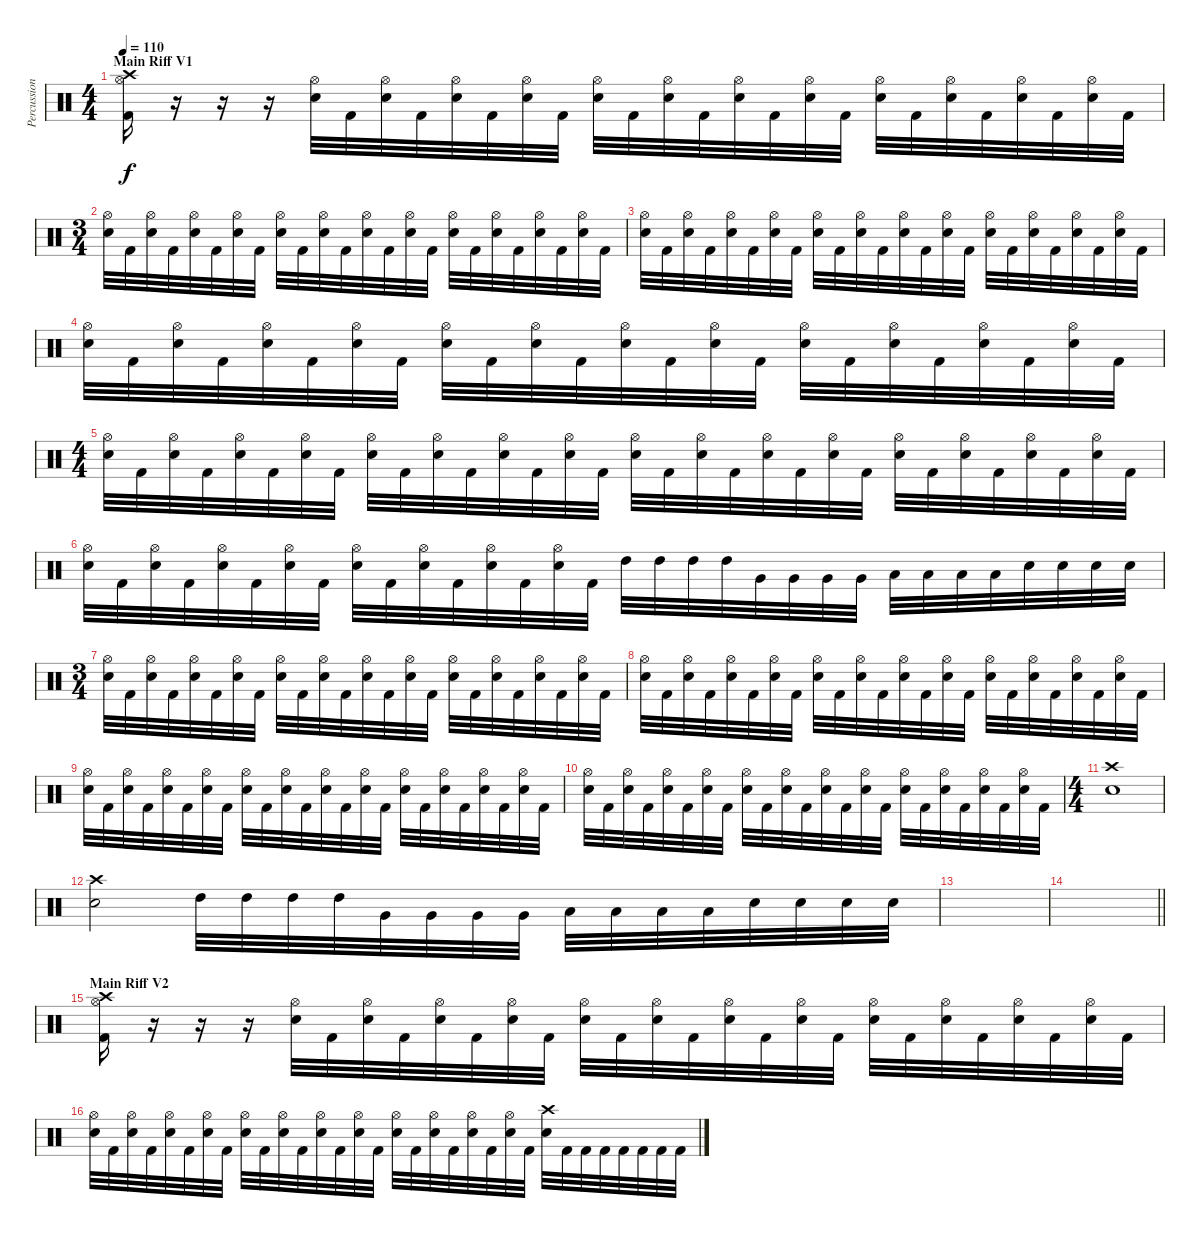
\track ("Percussion" "Percussion") {instrument percussion}
\staff {score}
\articulation defaults
\ts (4 4)
\section ("" "Main Riff V1")
\tempo 110
\clef neutral
\ks c
("Crash high (hit)" "Hi-Hat (open)" "Kick (hit) 2").16{dy f} r.16 r.16 r.16 ("Hi-Hat (open)" "Electric Snare (hit)").32 "Kick (hit) 2".32 ("Hi-Hat (open)" "Electric Snare (hit)").32 "Kick (hit) 2".32 ("Hi-Hat (open)" "Electric Snare (hit)").32 "Kick (hit) 2".32 ("Hi-Hat (open)" "Electric Snare (hit)").32 "Kick (hit) 2".32 ("Hi-Hat (open)" "Electric Snare (hit)").32 "Kick (hit) 2".32 ("Hi-Hat (open)" "Electric Snare (hit)").32 "Kick (hit) 2".32 ("Hi-Hat (open)" "Electric Snare (hit)").32 "Kick (hit) 2".32 ("Hi-Hat (open)" "Electric Snare (hit)").32 "Kick (hit) 2".32 ("Hi-Hat (open)" "Electric Snare (hit)").32 "Kick (hit) 2".32 ("Hi-Hat (open)" "Electric Snare (hit)").32 "Kick (hit) 2".32 ("Hi-Hat (open)" "Electric Snare (hit)").32 "Kick (hit) 2".32 ("Hi-Hat (open)" "Electric Snare (hit)").32 "Kick (hit) 2".32 |
\ts (3 4)
("Hi-Hat (open)" "Electric Snare (hit)").32 "Kick (hit) 2".32 ("Hi-Hat (open)" "Electric Snare (hit)").32 "Kick (hit) 2".32 ("Hi-Hat (open)" "Electric Snare (hit)").32 "Kick (hit) 2".32 ("Hi-Hat (open)" "Electric Snare (hit)").32 "Kick (hit) 2".32 ("Hi-Hat (open)" "Electric Snare (hit)").32 "Kick (hit) 2".32 ("Hi-Hat (open)" "Electric Snare (hit)").32 "Kick (hit) 2".32 ("Hi-Hat (open)" "Electric Snare (hit)").32 "Kick (hit) 2".32 ("Hi-Hat (open)" "Electric Snare (hit)").32 "Kick (hit) 2".32 ("Hi-Hat (open)" "Electric Snare (hit)").32 "Kick (hit) 2".32 ("Hi-Hat (open)" "Electric Snare (hit)").32 "Kick (hit) 2".32 ("Hi-Hat (open)" "Electric Snare (hit)").32 "Kick (hit) 2".32 ("Hi-Hat (open)" "Electric Snare (hit)").32 "Kick (hit) 2".32 |
("Hi-Hat (open)" "Electric Snare (hit)").32 "Kick (hit) 2".32 ("Hi-Hat (open)" "Electric Snare (hit)").32 "Kick (hit) 2".32 ("Hi-Hat (open)" "Electric Snare (hit)").32 "Kick (hit) 2".32 ("Hi-Hat (open)" "Electric Snare (hit)").32 "Kick (hit) 2".32 ("Hi-Hat (open)" "Electric Snare (hit)").32 "Kick (hit) 2".32 ("Hi-Hat (open)" "Electric Snare (hit)").32 "Kick (hit) 2".32 ("Hi-Hat (open)" "Electric Snare (hit)").32 "Kick (hit) 2".32 ("Hi-Hat (open)" "Electric Snare (hit)").32 "Kick (hit) 2".32 ("Hi-Hat (open)" "Electric Snare (hit)").32 "Kick (hit) 2".32 ("Hi-Hat (open)" "Electric Snare (hit)").32 "Kick (hit) 2".32 ("Hi-Hat (open)" "Electric Snare (hit)").32 "Kick (hit) 2".32 ("Hi-Hat (open)" "Electric Snare (hit)").32 "Kick (hit) 2".32 |
("Hi-Hat (open)" "Electric Snare (hit)").32 "Kick (hit) 2".32 ("Hi-Hat (open)" "Electric Snare (hit)").32 "Kick (hit) 2".32 ("Hi-Hat (open)" "Electric Snare (hit)").32 "Kick (hit) 2".32 ("Hi-Hat (open)" "Electric Snare (hit)").32 "Kick (hit) 2".32 ("Hi-Hat (open)" "Electric Snare (hit)").32 "Kick (hit) 2".32 ("Hi-Hat (open)" "Electric Snare (hit)").32 "Kick (hit) 2".32 ("Hi-Hat (open)" "Electric Snare (hit)").32 "Kick (hit) 2".32 ("Hi-Hat (open)" "Electric Snare (hit)").32 "Kick (hit) 2".32 ("Hi-Hat (open)" "Electric Snare (hit)").32 "Kick (hit) 2".32 ("Hi-Hat (open)" "Electric Snare (hit)").32 "Kick (hit) 2".32 ("Hi-Hat (open)" "Electric Snare (hit)").32 "Kick (hit) 2".32 ("Hi-Hat (open)" "Electric Snare (hit)").32 "Kick (hit) 2".32 |
\ts (4 4)
("Hi-Hat (open)" "Electric Snare (hit)").32 "Kick (hit) 2".32 ("Hi-Hat (open)" "Electric Snare (hit)").32 "Kick (hit) 2".32 ("Hi-Hat (open)" "Electric Snare (hit)").32 "Kick (hit) 2".32 ("Hi-Hat (open)" "Electric Snare (hit)").32 "Kick (hit) 2".32 ("Hi-Hat (open)" "Electric Snare (hit)").32 "Kick (hit) 2".32 ("Hi-Hat (open)" "Electric Snare (hit)").32 "Kick (hit) 2".32 ("Hi-Hat (open)" "Electric Snare (hit)").32 "Kick (hit) 2".32 ("Hi-Hat (open)" "Electric Snare (hit)").32 "Kick (hit) 2".32 ("Hi-Hat (open)" "Electric Snare (hit)").32 "Kick (hit) 2".32 ("Hi-Hat (open)" "Electric Snare (hit)").32 "Kick (hit) 2".32 ("Hi-Hat (open)" "Electric Snare (hit)").32 "Kick (hit) 2".32 ("Hi-Hat (open)" "Electric Snare (hit)").32 "Kick (hit) 2".32 ("Hi-Hat (open)" "Electric Snare (hit)").32 "Kick (hit) 2".32 ("Hi-Hat (open)" "Electric Snare (hit)").32 "Kick (hit) 2".32 ("Hi-Hat (open)" "Electric Snare (hit)").32 "Kick (hit) 2".32 ("Hi-Hat (open)" "Electric Snare (hit)").32 "Kick (hit) 2".32 |
("Hi-Hat (open)" "Electric Snare (hit)").32 "Kick (hit) 2".32 ("Hi-Hat (open)" "Electric Snare (hit)").32 "Kick (hit) 2".32 ("Hi-Hat (open)" "Electric Snare (hit)").32 "Kick (hit) 2".32 ("Hi-Hat (open)" "Electric Snare (hit)").32 "Kick (hit) 2".32 ("Hi-Hat (open)" "Electric Snare (hit)").32 "Kick (hit) 2".32 ("Hi-Hat (open)" "Electric Snare (hit)").32 "Kick (hit) 2".32 ("Hi-Hat (open)" "Electric Snare (hit)").32 "Kick (hit) 2".32 ("Hi-Hat (open)" "Electric Snare (hit)").32 "Kick (hit) 2".32 "High Tom (hit)".32 "High Tom (hit)".32 "High Tom (hit)".32 "High Tom (hit)".32 "Very Low Tom (hit)".32 "Very Low Tom (hit)".32 "Very Low Tom (hit)".32 "Very Low Tom (hit)".32 "Low Floor Tom (hit)".32 "Low Floor Tom (hit)".32 "Low Floor Tom (hit)".32 "Low Floor Tom (hit)".32 "Electric Snare (hit)".32 "Electric Snare (hit)".32 "Electric Snare (hit)".32 "Electric Snare (hit)".32 |
\ts (3 4)
("Hi-Hat (open)" "Electric Snare (hit)").32 "Kick (hit) 2".32 ("Hi-Hat (open)" "Electric Snare (hit)").32 "Kick (hit) 2".32 ("Hi-Hat (open)" "Electric Snare (hit)").32 "Kick (hit) 2".32 ("Hi-Hat (open)" "Electric Snare (hit)").32 "Kick (hit) 2".32 ("Hi-Hat (open)" "Electric Snare (hit)").32 "Kick (hit) 2".32 ("Hi-Hat (open)" "Electric Snare (hit)").32 "Kick (hit) 2".32 ("Hi-Hat (open)" "Electric Snare (hit)").32 "Kick (hit) 2".32 ("Hi-Hat (open)" "Electric Snare (hit)").32 "Kick (hit) 2".32 ("Hi-Hat (open)" "Electric Snare (hit)").32 "Kick (hit) 2".32 ("Hi-Hat (open)" "Electric Snare (hit)").32 "Kick (hit) 2".32 ("Hi-Hat (open)" "Electric Snare (hit)").32 "Kick (hit) 2".32 ("Hi-Hat (open)" "Electric Snare (hit)").32 "Kick (hit) 2".32 |
("Hi-Hat (open)" "Electric Snare (hit)").32 "Kick (hit) 2".32 ("Hi-Hat (open)" "Electric Snare (hit)").32 "Kick (hit) 2".32 ("Hi-Hat (open)" "Electric Snare (hit)").32 "Kick (hit) 2".32 ("Hi-Hat (open)" "Electric Snare (hit)").32 "Kick (hit) 2".32 ("Hi-Hat (open)" "Electric Snare (hit)").32 "Kick (hit) 2".32 ("Hi-Hat (open)" "Electric Snare (hit)").32 "Kick (hit) 2".32 ("Hi-Hat (open)" "Electric Snare (hit)").32 "Kick (hit) 2".32 ("Hi-Hat (open)" "Electric Snare (hit)").32 "Kick (hit) 2".32 ("Hi-Hat (open)" "Electric Snare (hit)").32 "Kick (hit) 2".32 ("Hi-Hat (open)" "Electric Snare (hit)").32 "Kick (hit) 2".32 ("Hi-Hat (open)" "Electric Snare (hit)").32 "Kick (hit) 2".32 ("Hi-Hat (open)" "Electric Snare (hit)").32 "Kick (hit) 2".32 |
("Hi-Hat (open)" "Electric Snare (hit)").32 "Kick (hit) 2".32 ("Hi-Hat (open)" "Electric Snare (hit)").32 "Kick (hit) 2".32 ("Hi-Hat (open)" "Electric Snare (hit)").32 "Kick (hit) 2".32 ("Hi-Hat (open)" "Electric Snare (hit)").32 "Kick (hit) 2".32 ("Hi-Hat (open)" "Electric Snare (hit)").32 "Kick (hit) 2".32 ("Hi-Hat (open)" "Electric Snare (hit)").32 "Kick (hit) 2".32 ("Hi-Hat (open)" "Electric Snare (hit)").32 "Kick (hit) 2".32 ("Hi-Hat (open)" "Electric Snare (hit)").32 "Kick (hit) 2".32 ("Hi-Hat (open)" "Electric Snare (hit)").32 "Kick (hit) 2".32 ("Hi-Hat (open)" "Electric Snare (hit)").32 "Kick (hit) 2".32 ("Hi-Hat (open)" "Electric Snare (hit)").32 "Kick (hit) 2".32 ("Hi-Hat (open)" "Electric Snare (hit)").32 "Kick (hit) 2".32 |
("Hi-Hat (open)" "Electric Snare (hit)").32 "Kick (hit) 2".32 ("Hi-Hat (open)" "Electric Snare (hit)").32 "Kick (hit) 2".32 ("Hi-Hat (open)" "Electric Snare (hit)").32 "Kick (hit) 2".32 ("Hi-Hat (open)" "Electric Snare (hit)").32 "Kick (hit) 2".32 ("Hi-Hat (open)" "Electric Snare (hit)").32 "Kick (hit) 2".32 ("Hi-Hat (open)" "Electric Snare (hit)").32 "Kick (hit) 2".32 ("Hi-Hat (open)" "Electric Snare (hit)").32 "Kick (hit) 2".32 ("Hi-Hat (open)" "Electric Snare (hit)").32 "Kick (hit) 2".32 ("Hi-Hat (open)" "Electric Snare (hit)").32 "Kick (hit) 2".32 ("Hi-Hat (open)" "Electric Snare (hit)").32 "Kick (hit) 2".32 ("Hi-Hat (open)" "Electric Snare (hit)").32 "Kick (hit) 2".32 ("Hi-Hat (open)" "Electric Snare (hit)").32 "Kick (hit) 2".32 |
\ts (4 4)
("Crash high (hit)" "Electric Snare (hit)").1 |
("Crash high (hit)" "Electric Snare (hit)").2 "High Tom (hit)".32 "High Tom (hit)".32 "High Tom (hit)".32 "High Tom (hit)".32 "Very Low Tom (hit)".32 "Very Low Tom (hit)".32 "Very Low Tom (hit)".32 "Very Low Tom (hit)".32 "Low Floor Tom (hit)".32 "Low Floor Tom (hit)".32 "Low Floor Tom (hit)".32 "Low Floor Tom (hit)".32 "Electric Snare (hit)".32 "Electric Snare (hit)".32 "Electric Snare (hit)".32 "Electric Snare (hit)".32 |
|
\barLineRight lightlight
|
\section ("" "Main Riff V2")
("Crash high (hit)" "Hi-Hat (open)" "Kick (hit) 2").16 r.16 r.16 r.16 ("Hi-Hat (open)" "Electric Snare (hit)").32 "Kick (hit) 2".32 ("Hi-Hat (open)" "Electric Snare (hit)").32 "Kick (hit) 2".32 ("Hi-Hat (open)" "Electric Snare (hit)").32 "Kick (hit) 2".32 ("Hi-Hat (open)" "Electric Snare (hit)").32 "Kick (hit) 2".32 ("Hi-Hat (open)" "Electric Snare (hit)").32 "Kick (hit) 2".32 ("Hi-Hat (open)" "Electric Snare (hit)").32 "Kick (hit) 2".32 ("Hi-Hat (open)" "Electric Snare (hit)").32 "Kick (hit) 2".32 ("Hi-Hat (open)" "Electric Snare (hit)").32 "Kick (hit) 2".32 ("Hi-Hat (open)" "Electric Snare (hit)").32 "Kick (hit) 2".32 ("Hi-Hat (open)" "Electric Snare (hit)").32 "Kick (hit) 2".32 ("Hi-Hat (open)" "Electric Snare (hit)").32 "Kick (hit) 2".32 ("Hi-Hat (open)" "Electric Snare (hit)").32 "Kick (hit) 2".32 |
("Hi-Hat (open)" "Electric Snare (hit)").32 "Kick (hit) 2".32 ("Hi-Hat (open)" "Electric Snare (hit)").32 "Kick (hit) 2".32 ("Hi-Hat (open)" "Electric Snare (hit)").32 "Kick (hit) 2".32 ("Hi-Hat (open)" "Electric Snare (hit)").32 "Kick (hit) 2".32 ("Hi-Hat (open)" "Electric Snare (hit)").32 "Kick (hit) 2".32 ("Hi-Hat (open)" "Electric Snare (hit)").32 "Kick (hit) 2".32 ("Hi-Hat (open)" "Electric Snare (hit)").32 "Kick (hit) 2".32 ("Hi-Hat (open)" "Electric Snare (hit)").32 "Kick (hit) 2".32 ("Hi-Hat (open)" "Electric Snare (hit)").32 "Kick (hit) 2".32 ("Hi-Hat (open)" "Electric Snare (hit)").32 "Kick (hit) 2".32 ("Hi-Hat (open)" "Electric Snare (hit)").32 "Kick (hit) 2".32 ("Hi-Hat (open)" "Electric Snare (hit)").32 "Kick (hit) 2".32 ("Crash high (hit)" "Electric Snare (hit)").32 "Kick (hit) 2".32 "Kick (hit) 2".32 "Kick (hit) 2".32 "Kick (hit) 2".32 "Kick (hit) 2".32 "Kick (hit) 2".32 "Kick (hit) 2".32
